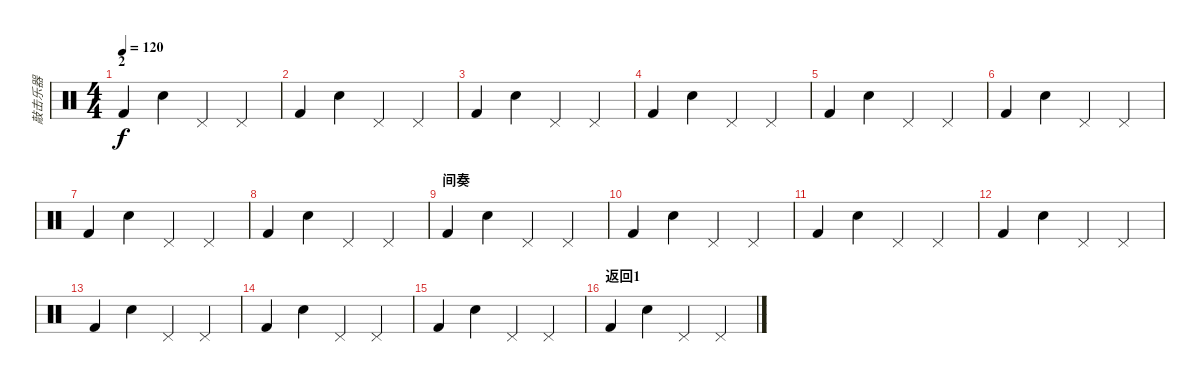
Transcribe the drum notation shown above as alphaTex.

\track ("敲击乐器" "敲击乐器") {instrument percussion}
\staff {score}
\articulation defaults
\ts (4 4)
\section ("" "2")
\tempo 120
\clef neutral
\ks c "Kick (hit) 2".4{dy f} "Electric Snare (hit)".4 "Pedal Hi-Hat (hit)".4 "Pedal Hi-Hat (hit)".4
|
"Kick (hit) 2".4 "Electric Snare (hit)".4 "Pedal Hi-Hat (hit)".4 "Pedal Hi-Hat (hit)".4 |
"Kick (hit) 2".4 "Electric Snare (hit)".4 "Pedal Hi-Hat (hit)".4 "Pedal Hi-Hat (hit)".4 |
"Kick (hit) 2".4 "Electric Snare (hit)".4 "Pedal Hi-Hat (hit)".4 "Pedal Hi-Hat (hit)".4 |
"Kick (hit) 2".4 "Electric Snare (hit)".4 "Pedal Hi-Hat (hit)".4 "Pedal Hi-Hat (hit)".4 |
"Kick (hit) 2".4 "Electric Snare (hit)".4 "Pedal Hi-Hat (hit)".4 "Pedal Hi-Hat (hit)".4 |
"Kick (hit) 2".4 "Electric Snare (hit)".4 "Pedal Hi-Hat (hit)".4 "Pedal Hi-Hat (hit)".4 |
"Kick (hit) 2".4 "Electric Snare (hit)".4 "Pedal Hi-Hat (hit)".4 "Pedal Hi-Hat (hit)".4 |
\section ("" "间奏")
"Kick (hit) 2".4 "Electric Snare (hit)".4 "Pedal Hi-Hat (hit)".4 "Pedal Hi-Hat (hit)".4 |
"Kick (hit) 2".4 "Electric Snare (hit)".4 "Pedal Hi-Hat (hit)".4 "Pedal Hi-Hat (hit)".4 |
"Kick (hit) 2".4 "Electric Snare (hit)".4 "Pedal Hi-Hat (hit)".4 "Pedal Hi-Hat (hit)".4 |
"Kick (hit) 2".4 "Electric Snare (hit)".4 "Pedal Hi-Hat (hit)".4 "Pedal Hi-Hat (hit)".4 |
"Kick (hit) 2".4 "Electric Snare (hit)".4 "Pedal Hi-Hat (hit)".4 "Pedal Hi-Hat (hit)".4 |
"Kick (hit) 2".4 "Electric Snare (hit)".4 "Pedal Hi-Hat (hit)".4 "Pedal Hi-Hat (hit)".4 |
"Kick (hit) 2".4 "Electric Snare (hit)".4 "Pedal Hi-Hat (hit)".4 "Pedal Hi-Hat (hit)".4 |
\section ("" "返回1")
"Kick (hit) 2".4 "Electric Snare (hit)".4 "Pedal Hi-Hat (hit)".4 "Pedal Hi-Hat (hit)".4
